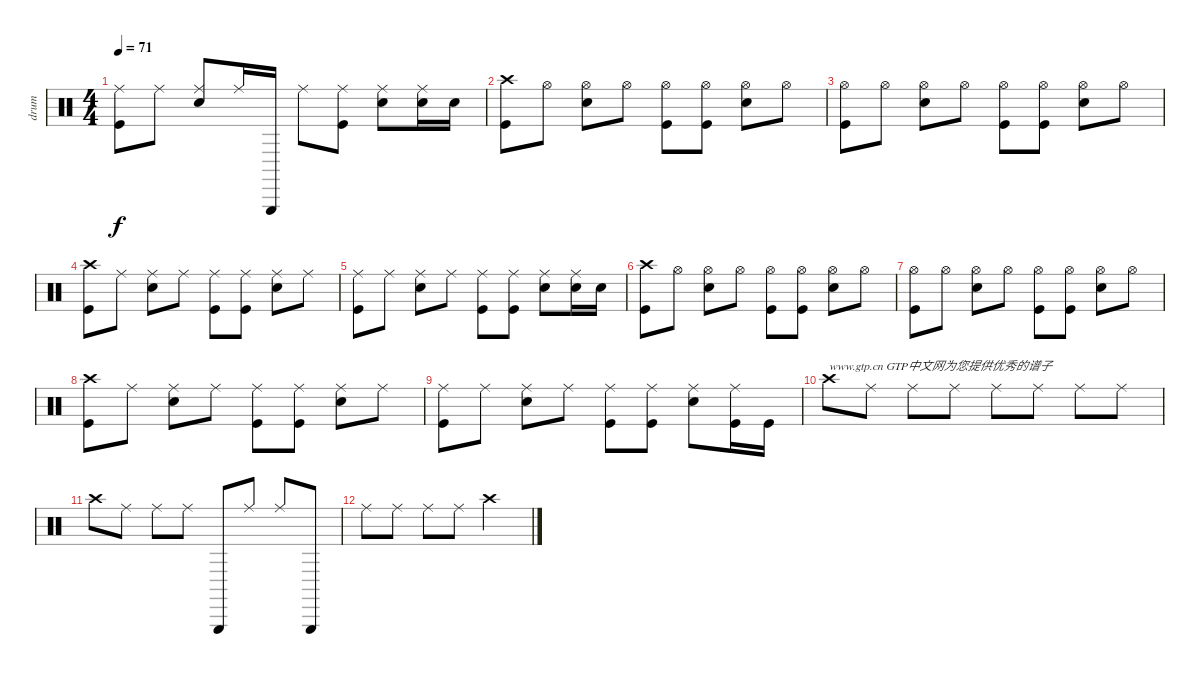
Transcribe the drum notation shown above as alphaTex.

\track ("drum" "drum") {instrument percussion}
\staff {score}
\articulation defaults
\ts (4 4)
\tempo 71
\clef neutral
\ks c
("Ride (middle)" "Kick (hit)").8{dy f} "Ride (middle)".8 ("Ride (middle)" "Snare (hit) 2").8 "Ride (middle)".16 "Triangle (hit)".16 "Ride (middle)".8 ("Ride (middle)" "Kick (hit)").8 ("Ride (middle)" "Snare (hit) 2").8 ("Ride (middle)" "Snare (hit) 2").16 "Snare (hit) 2".16 |
("Crash high (hit)" "Kick (hit)").8 "Hi-Hat (open)".8 ("Hi-Hat (open)" "Snare (hit) 2").8 "Hi-Hat (open)".8 ("Hi-Hat (open)" "Kick (hit)").8 ("Hi-Hat (open)" "Kick (hit)").8 ("Hi-Hat (open)" "Snare (hit) 2").8 "Hi-Hat (open)".8 |
("Hi-Hat (open)" "Kick (hit)").8 "Hi-Hat (open)".8 ("Hi-Hat (open)" "Snare (hit) 2").8 "Hi-Hat (open)".8 ("Hi-Hat (open)" "Kick (hit)").8 ("Hi-Hat (open)" "Kick (hit)").8 ("Hi-Hat (open)" "Snare (hit) 2").8 "Hi-Hat (open)".8 |
("Crash high (hit)" "Kick (hit)").8 "Ride (middle)".8 ("Ride (middle)" "Snare (hit) 2").8 "Ride (middle)".8 ("Ride (middle)" "Kick (hit)").8 ("Ride (middle)" "Kick (hit)").8 ("Ride (middle)" "Snare (hit) 2").8 "Ride (middle)".8 |
("Ride (middle)" "Kick (hit)").8 "Ride (middle)".8 ("Ride (middle)" "Snare (hit) 2").8 "Ride (middle)".8 ("Ride (middle)" "Kick (hit)").8 ("Ride (middle)" "Kick (hit)").8 ("Ride (middle)" "Snare (hit) 2").8 ("Ride (middle)" "Snare (hit) 2").16 "Snare (hit) 2".16 |
("Crash high (hit)" "Kick (hit)").8 "Hi-Hat (open)".8 ("Hi-Hat (open)" "Snare (hit) 2").8 "Hi-Hat (open)".8 ("Hi-Hat (open)" "Kick (hit)").8 ("Hi-Hat (open)" "Kick (hit)").8 ("Hi-Hat (open)" "Snare (hit) 2").8 "Hi-Hat (open)".8 |
("Hi-Hat (open)" "Kick (hit)").8 "Hi-Hat (open)".8 ("Hi-Hat (open)" "Snare (hit) 2").8 "Hi-Hat (open)".8 ("Hi-Hat (open)" "Kick (hit)").8 ("Hi-Hat (open)" "Kick (hit)").8 ("Hi-Hat (open)" "Snare (hit) 2").8 "Hi-Hat (open)".8 |
("Crash high (hit)" "Kick (hit)").8 "Ride (middle)".8 ("Ride (middle)" "Snare (hit) 2").8 "Ride (middle)".8 ("Ride (middle)" "Kick (hit)").8 ("Ride (middle)" "Kick (hit)").8 ("Ride (middle)" "Snare (hit) 2").8 "Ride (middle)".8 |
("Ride (middle)" "Kick (hit)").8 "Ride (middle)".8 ("Ride (middle)" "Snare (hit) 2").8 "Ride (middle)".8 ("Ride (middle)" "Kick (hit)").8 ("Ride (middle)" "Kick (hit)").8 ("Ride (middle)" "Snare (hit) 2").8 ("Ride (middle)" "Kick (hit)").16 "Kick (hit)".16 |
"Crash high (hit)".8{txt "www.gtp.cn GTP中文网为您提供优秀的谱子"} "Ride (middle)".8 "Ride (middle)".8 "Ride (middle)".8 "Ride (middle)".8 "Ride (middle)".8 "Ride (middle)".8 "Ride (middle)".8 |
"Crash high (hit)".8 "Ride (middle)".8 "Ride (middle)".8 "Ride (middle)".8 "Triangle (hit)".8 "Ride (middle)".8 "Ride (middle)".8 "Triangle (hit)".8 |
"Ride (middle)".8 "Ride (middle)".8 "Ride (middle)".8 "Ride (middle)".8 "Crash high (hit)".2
